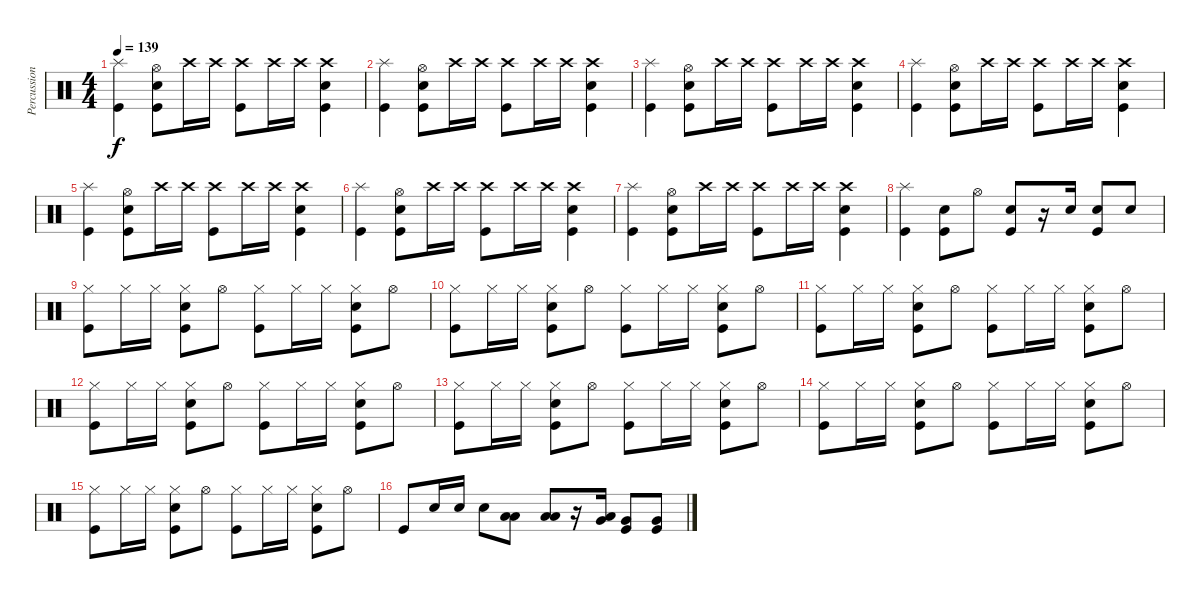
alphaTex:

\track ("Percussion" "Percussion") {instrument percussion}
\staff {score}
\articulation defaults
\ts (4 4)
\tempo 139
\clef neutral
\ks c
("Splash (hit)" "Kick (hit)").4{dy f} ("Hi-Hat (open)" "Snare (hit) 2" "Kick (hit)").8 "Crash high (hit)".16 "Crash high (hit)".16 ("Crash high (hit)" "Kick (hit)").8 "Crash high (hit)".16 "Crash high (hit)".16 ("Crash high (hit)" "Snare (hit) 2" "Kick (hit)").4 |
("Splash (hit)" "Kick (hit)").4 ("Hi-Hat (open)" "Snare (hit) 2" "Kick (hit)").8 "Crash high (hit)".16 "Crash high (hit)".16 ("Crash high (hit)" "Kick (hit)").8 "Crash high (hit)".16 "Crash high (hit)".16 ("Crash high (hit)" "Snare (hit) 2" "Kick (hit)").4 |
("Splash (hit)" "Kick (hit)").4 ("Hi-Hat (open)" "Snare (hit) 2" "Kick (hit)").8 "Crash high (hit)".16 "Crash high (hit)".16 ("Crash high (hit)" "Kick (hit)").8 "Crash high (hit)".16 "Crash high (hit)".16 ("Crash high (hit)" "Snare (hit) 2" "Kick (hit)").4 |
("Splash (hit)" "Kick (hit)").4 ("Hi-Hat (open)" "Snare (hit) 2" "Kick (hit)").8 "Crash high (hit)".16 "Crash high (hit)".16 ("Crash high (hit)" "Kick (hit)").8 "Crash high (hit)".16 "Crash high (hit)".16 ("Crash high (hit)" "Snare (hit) 2" "Kick (hit)").4 |
("Splash (hit)" "Kick (hit)").4 ("Hi-Hat (open)" "Snare (hit) 2" "Kick (hit)").8 "Crash high (hit)".16 "Crash high (hit)".16 ("Crash high (hit)" "Kick (hit)").8 "Crash high (hit)".16 "Crash high (hit)".16 ("Crash high (hit)" "Snare (hit) 2" "Kick (hit)").4 |
("Splash (hit)" "Kick (hit)").4 ("Hi-Hat (open)" "Snare (hit) 2" "Kick (hit)").8 "Crash high (hit)".16 "Crash high (hit)".16 ("Crash high (hit)" "Kick (hit)").8 "Crash high (hit)".16 "Crash high (hit)".16 ("Crash high (hit)" "Snare (hit) 2" "Kick (hit)").4 |
("Splash (hit)" "Kick (hit)").4 ("Hi-Hat (open)" "Snare (hit) 2" "Kick (hit)").8 "Crash high (hit)".16 "Crash high (hit)".16 ("Crash high (hit)" "Kick (hit)").8 "Crash high (hit)".16 "Crash high (hit)".16 ("Crash high (hit)" "Snare (hit) 2" "Kick (hit)").4 |
("Splash (hit)" "Kick (hit)").4 ("Snare (hit) 2" "Kick (hit)").8 "Hi-Hat (open)".8 ("Snare (hit) 2" "Kick (hit)").8 r.16 "Snare (hit) 2".16 ("Snare (hit) 2" "Kick (hit)").8 "Snare (hit) 2".8 |
("Hi-Hat (closed)" "Kick (hit)").8 "Hi-Hat (closed)".16 "Hi-Hat (closed)".16 ("Hi-Hat (closed)" "Snare (hit) 2" "Kick (hit)").8 "Hi-Hat (open)".8 ("Hi-Hat (closed)" "Kick (hit)").8 "Hi-Hat (closed)".16 "Hi-Hat (closed)".16 ("Hi-Hat (closed)" "Snare (hit) 2" "Kick (hit)").8 "Hi-Hat (open)".8 |
("Hi-Hat (closed)" "Kick (hit)").8 "Hi-Hat (closed)".16 "Hi-Hat (closed)".16 ("Hi-Hat (closed)" "Snare (hit) 2" "Kick (hit)").8 "Hi-Hat (open)".8 ("Hi-Hat (closed)" "Kick (hit)").8 "Hi-Hat (closed)".16 "Hi-Hat (closed)".16 ("Hi-Hat (closed)" "Snare (hit) 2" "Kick (hit)").8 "Hi-Hat (open)".8 |
("Hi-Hat (closed)" "Kick (hit)").8 "Hi-Hat (closed)".16 "Hi-Hat (closed)".16 ("Hi-Hat (closed)" "Snare (hit) 2" "Kick (hit)").8 "Hi-Hat (open)".8 ("Hi-Hat (closed)" "Kick (hit)").8 "Hi-Hat (closed)".16 "Hi-Hat (closed)".16 ("Hi-Hat (closed)" "Snare (hit) 2" "Kick (hit)").8 "Hi-Hat (open)".8 |
("Hi-Hat (closed)" "Kick (hit)").8 "Hi-Hat (closed)".16 "Hi-Hat (closed)".16 ("Hi-Hat (closed)" "Snare (hit) 2" "Kick (hit)").8 "Hi-Hat (open)".8 ("Hi-Hat (closed)" "Kick (hit)").8 "Hi-Hat (closed)".16 "Hi-Hat (closed)".16 ("Hi-Hat (closed)" "Snare (hit) 2" "Kick (hit)").8 "Hi-Hat (open)".8 |
("Hi-Hat (closed)" "Kick (hit)").8 "Hi-Hat (closed)".16 "Hi-Hat (closed)".16 ("Hi-Hat (closed)" "Snare (hit) 2" "Kick (hit)").8 "Hi-Hat (open)".8 ("Hi-Hat (closed)" "Kick (hit)").8 "Hi-Hat (closed)".16 "Hi-Hat (closed)".16 ("Hi-Hat (closed)" "Snare (hit) 2" "Kick (hit)").8 "Hi-Hat (open)".8 |
("Hi-Hat (closed)" "Kick (hit)").8 "Hi-Hat (closed)".16 "Hi-Hat (closed)".16 ("Hi-Hat (closed)" "Snare (hit) 2" "Kick (hit)").8 "Hi-Hat (open)".8 ("Hi-Hat (closed)" "Kick (hit)").8 "Hi-Hat (closed)".16 "Hi-Hat (closed)".16 ("Hi-Hat (closed)" "Snare (hit) 2" "Kick (hit)").8 "Hi-Hat (open)".8 |
("Hi-Hat (closed)" "Kick (hit)").8 "Hi-Hat (closed)".16 "Hi-Hat (closed)".16 ("Hi-Hat (closed)" "Snare (hit) 2" "Kick (hit)").8 "Hi-Hat (open)".8 ("Hi-Hat (closed)" "Kick (hit)").8 "Hi-Hat (closed)".16 "Hi-Hat (closed)".16 ("Hi-Hat (closed)" "Snare (hit) 2" "Kick (hit)").8 "Hi-Hat (open)".8 |
"Kick (hit)".8 "Snare (hit) 2".16 "Snare (hit) 2".16 "Snare (hit) 2".8 ("Low Tom (hit)" "Low Tom (hit)").8 ("Low Tom (hit)" "Low Tom (hit)").8 r.16 ("Very Low Tom (hit)" "Low Tom (hit)").16 ("Kick (hit)" "Very Low Tom (hit)").8 ("Kick (hit)" "Very Low Tom (hit)").8
